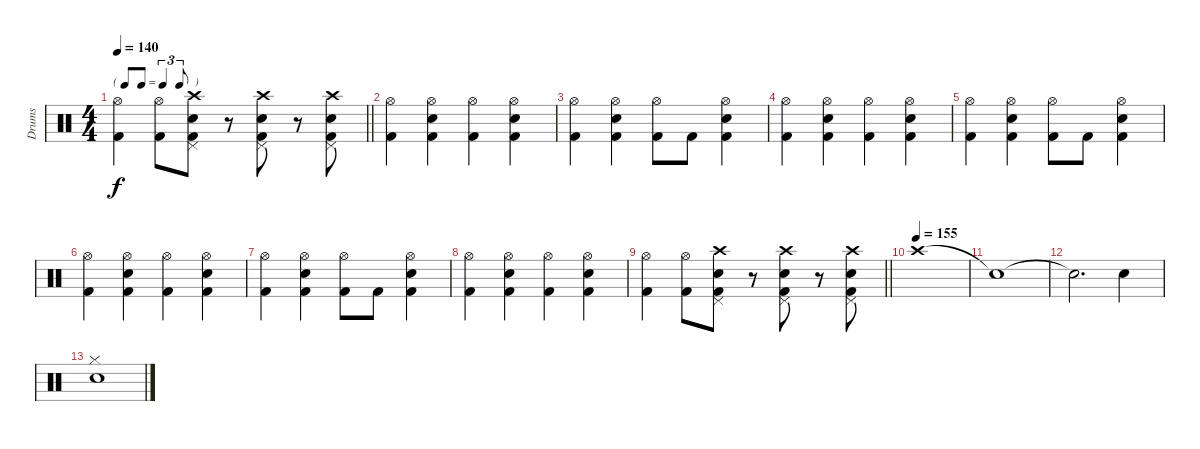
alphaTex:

\track ("Drums" "Drums") {instrument percussion}
\staff {score}
\articulation defaults
\ts (4 4)
\tf triplet8th
\tempo 140
\clef neutral
\barLineRight lightlight
\ks c
("Hi-Hat (open)" "Kick (hit) 2").4{dy f} ("Hi-Hat (open)" "Kick (hit) 2").8 ("Pedal Hi-Hat (hit)" "Kick (hit) 2" "Snare (hit) 2" "Crash high (hit)").8 r.8 ("Pedal Hi-Hat (hit)" "Kick (hit) 2" "Snare (hit) 2" "Crash high (hit)").8 r.8 ("Pedal Hi-Hat (hit)" "Kick (hit) 2" "Snare (hit) 2" "Crash high (hit)").8 |
("Hi-Hat (open)" "Kick (hit) 2").4 ("Hi-Hat (open)" "Kick (hit) 2" "Snare (hit) 2").4 ("Hi-Hat (open)" "Kick (hit) 2").4 ("Hi-Hat (open)" "Kick (hit) 2" "Snare (hit) 2").4 |
("Hi-Hat (open)" "Kick (hit) 2").4 ("Hi-Hat (open)" "Kick (hit) 2" "Snare (hit) 2").4 ("Hi-Hat (open)" "Kick (hit) 2").8 "Kick (hit) 2".8 ("Hi-Hat (open)" "Kick (hit) 2" "Snare (hit) 2").4 |
("Hi-Hat (open)" "Kick (hit) 2").4 ("Hi-Hat (open)" "Kick (hit) 2" "Snare (hit) 2").4 ("Hi-Hat (open)" "Kick (hit) 2").4 ("Hi-Hat (open)" "Kick (hit) 2" "Snare (hit) 2").4 |
("Hi-Hat (open)" "Kick (hit) 2").4 ("Hi-Hat (open)" "Kick (hit) 2" "Snare (hit) 2").4 ("Hi-Hat (open)" "Kick (hit) 2").8 "Kick (hit) 2".8 ("Hi-Hat (open)" "Kick (hit) 2" "Snare (hit) 2").4 |
("Hi-Hat (open)" "Kick (hit) 2").4 ("Hi-Hat (open)" "Kick (hit) 2" "Snare (hit) 2").4 ("Hi-Hat (open)" "Kick (hit) 2").4 ("Hi-Hat (open)" "Kick (hit) 2" "Snare (hit) 2").4 |
("Hi-Hat (open)" "Kick (hit) 2").4 ("Hi-Hat (open)" "Kick (hit) 2" "Snare (hit) 2").4 ("Hi-Hat (open)" "Kick (hit) 2").8 "Kick (hit) 2".8 ("Hi-Hat (open)" "Kick (hit) 2" "Snare (hit) 2").4 |
("Hi-Hat (open)" "Kick (hit) 2").4 ("Hi-Hat (open)" "Kick (hit) 2" "Snare (hit) 2").4 ("Hi-Hat (open)" "Kick (hit) 2").4 ("Hi-Hat (open)" "Kick (hit) 2" "Snare (hit) 2").4 |
\barLineRight lightlight
("Hi-Hat (open)" "Kick (hit) 2").4 ("Hi-Hat (open)" "Kick (hit) 2").8 ("Pedal Hi-Hat (hit)" "Kick (hit) 2" "Snare (hit) 2" "Crash high (hit)").8 r.8 ("Pedal Hi-Hat (hit)" "Kick (hit) 2" "Snare (hit) 2" "Crash high (hit)").8 r.8 ("Pedal Hi-Hat (hit)" "Kick (hit) 2" "Snare (hit) 2" "Crash high (hit)").8 |
\tempo (155)
"Crash high (hit)".1 |
"Snare (hit)"{t}.1 |
"Snare (hit)"{t}.2{d} "Snare (hit) 2".4 |
("Hi-Hat (closed)" "Snare (hit) 2").1
